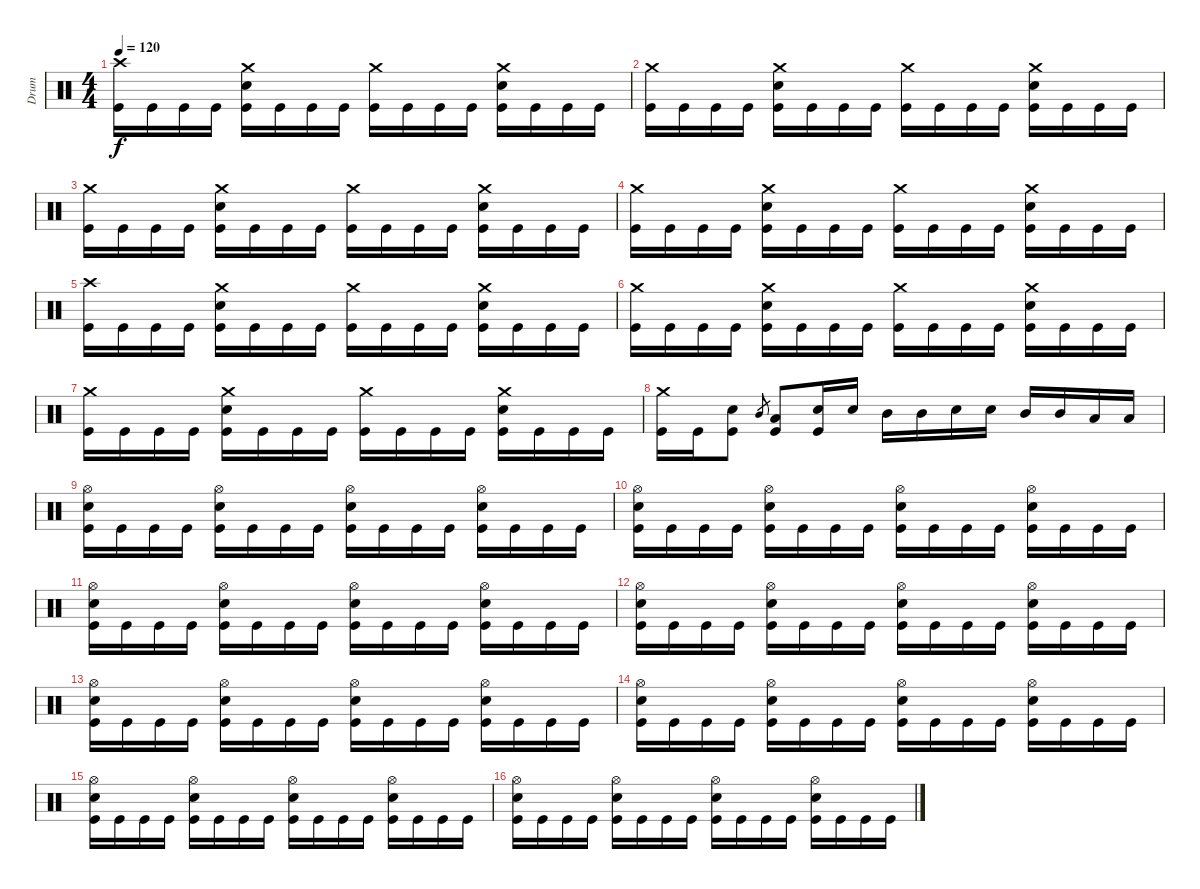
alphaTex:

\track ("Drum" "Drum") {instrument percussion}
\staff {score}
\articulation defaults
\ts (4 4)
\tempo 120
\clef neutral
\ks c
("Kick (hit)" "Crash high (hit)").16{dy f} "Kick (hit)".16 "Kick (hit)".16 "Kick (hit)".16 ("Kick (hit)" "Electric Snare (hit)" "Crash medium (hit)").16 "Kick (hit)".16 "Kick (hit)".16 "Kick (hit)".16 ("Kick (hit)" "Crash medium (hit)").16 "Kick (hit)".16 "Kick (hit)".16 "Kick (hit)".16 ("Kick (hit)" "Electric Snare (hit)" "Crash medium (hit)").16 "Kick (hit)".16 "Kick (hit)".16 "Kick (hit)".16 |
("Kick (hit)" "Crash medium (hit)").16 "Kick (hit)".16 "Kick (hit)".16 "Kick (hit)".16 ("Kick (hit)" "Electric Snare (hit)" "Crash medium (hit)").16 "Kick (hit)".16 "Kick (hit)".16 "Kick (hit)".16 ("Kick (hit)" "Crash medium (hit)").16 "Kick (hit)".16 "Kick (hit)".16 "Kick (hit)".16 ("Kick (hit)" "Electric Snare (hit)" "Crash medium (hit)").16 "Kick (hit)".16 "Kick (hit)".16 "Kick (hit)".16 |
("Kick (hit)" "Crash medium (hit)").16 "Kick (hit)".16 "Kick (hit)".16 "Kick (hit)".16 ("Kick (hit)" "Electric Snare (hit)" "Crash medium (hit)").16 "Kick (hit)".16 "Kick (hit)".16 "Kick (hit)".16 ("Kick (hit)" "Crash medium (hit)").16 "Kick (hit)".16 "Kick (hit)".16 "Kick (hit)".16 ("Kick (hit)" "Electric Snare (hit)" "Crash medium (hit)").16 "Kick (hit)".16 "Kick (hit)".16 "Kick (hit)".16 |
("Kick (hit)" "Crash medium (hit)").16 "Kick (hit)".16 "Kick (hit)".16 "Kick (hit)".16 ("Kick (hit)" "Electric Snare (hit)" "Crash medium (hit)").16 "Kick (hit)".16 "Kick (hit)".16 "Kick (hit)".16 ("Kick (hit)" "Crash medium (hit)").16 "Kick (hit)".16 "Kick (hit)".16 "Kick (hit)".16 ("Kick (hit)" "Electric Snare (hit)" "Crash medium (hit)").16 "Kick (hit)".16 "Kick (hit)".16 "Kick (hit)".16 |
("Kick (hit)" "Crash high (hit)").16 "Kick (hit)".16 "Kick (hit)".16 "Kick (hit)".16 ("Kick (hit)" "Electric Snare (hit)" "Crash medium (hit)").16 "Kick (hit)".16 "Kick (hit)".16 "Kick (hit)".16 ("Kick (hit)" "Crash medium (hit)").16 "Kick (hit)".16 "Kick (hit)".16 "Kick (hit)".16 ("Kick (hit)" "Electric Snare (hit)" "Crash medium (hit)").16 "Kick (hit)".16 "Kick (hit)".16 "Kick (hit)".16 |
("Kick (hit)" "Crash medium (hit)").16 "Kick (hit)".16 "Kick (hit)".16 "Kick (hit)".16 ("Kick (hit)" "Electric Snare (hit)" "Crash medium (hit)").16 "Kick (hit)".16 "Kick (hit)".16 "Kick (hit)".16 ("Kick (hit)" "Crash medium (hit)").16 "Kick (hit)".16 "Kick (hit)".16 "Kick (hit)".16 ("Kick (hit)" "Electric Snare (hit)" "Crash medium (hit)").16 "Kick (hit)".16 "Kick (hit)".16 "Kick (hit)".16 |
("Kick (hit)" "Crash medium (hit)").16 "Kick (hit)".16 "Kick (hit)".16 "Kick (hit)".16 ("Kick (hit)" "Electric Snare (hit)" "Crash medium (hit)").16 "Kick (hit)".16 "Kick (hit)".16 "Kick (hit)".16 ("Kick (hit)" "Crash medium (hit)").16 "Kick (hit)".16 "Kick (hit)".16 "Kick (hit)".16 ("Kick (hit)" "Electric Snare (hit)" "Crash medium (hit)").16 "Kick (hit)".16 "Kick (hit)".16 "Kick (hit)".16 |
("Kick (hit)" "Crash medium (hit)").16 "Kick (hit)".16 ("Kick (hit)" "Electric Snare (hit)").8 "Mid Tom (hit)".8{gr} ("Kick (hit)" "Low Tom (hit)").8 ("Kick (hit)" "Electric Snare (hit)").16 "Electric Snare (hit)".16 "Mid Tom (hit)".16 "Mid Tom (hit)".16 "Electric Snare (hit)".16 "Electric Snare (hit)".16 "Mid Tom (hit)".16 "Mid Tom (hit)".16 "Low Tom (hit)".16 "Low Tom (hit)".16 |
("Kick (hit)" "Electric Snare (hit)" "Hi-Hat (open)").16 "Kick (hit)".16 "Kick (hit)".16 "Kick (hit)".16 ("Kick (hit)" "Electric Snare (hit)" "Hi-Hat (open)").16 "Kick (hit)".16 "Kick (hit)".16 "Kick (hit)".16 ("Kick (hit)" "Electric Snare (hit)" "Hi-Hat (open)").16 "Kick (hit)".16 "Kick (hit)".16 "Kick (hit)".16 ("Kick (hit)" "Electric Snare (hit)" "Hi-Hat (open)").16 "Kick (hit)".16 "Kick (hit)".16 "Kick (hit)".16 |
("Kick (hit)" "Electric Snare (hit)" "Hi-Hat (open)").16 "Kick (hit)".16 "Kick (hit)".16 "Kick (hit)".16 ("Kick (hit)" "Electric Snare (hit)" "Hi-Hat (open)").16 "Kick (hit)".16 "Kick (hit)".16 "Kick (hit)".16 ("Kick (hit)" "Electric Snare (hit)" "Hi-Hat (open)").16 "Kick (hit)".16 "Kick (hit)".16 "Kick (hit)".16 ("Kick (hit)" "Electric Snare (hit)" "Hi-Hat (open)").16 "Kick (hit)".16 "Kick (hit)".16 "Kick (hit)".16 |
("Kick (hit)" "Electric Snare (hit)" "Hi-Hat (open)").16 "Kick (hit)".16 "Kick (hit)".16 "Kick (hit)".16 ("Kick (hit)" "Electric Snare (hit)" "Hi-Hat (open)").16 "Kick (hit)".16 "Kick (hit)".16 "Kick (hit)".16 ("Kick (hit)" "Electric Snare (hit)" "Hi-Hat (open)").16 "Kick (hit)".16 "Kick (hit)".16 "Kick (hit)".16 ("Kick (hit)" "Electric Snare (hit)" "Hi-Hat (open)").16 "Kick (hit)".16 "Kick (hit)".16 "Kick (hit)".16 |
("Kick (hit)" "Electric Snare (hit)" "Hi-Hat (open)").16 "Kick (hit)".16 "Kick (hit)".16 "Kick (hit)".16 ("Kick (hit)" "Electric Snare (hit)" "Hi-Hat (open)").16 "Kick (hit)".16 "Kick (hit)".16 "Kick (hit)".16 ("Kick (hit)" "Electric Snare (hit)" "Hi-Hat (open)").16 "Kick (hit)".16 "Kick (hit)".16 "Kick (hit)".16 ("Kick (hit)" "Electric Snare (hit)" "Hi-Hat (open)").16 "Kick (hit)".16 "Kick (hit)".16 "Kick (hit)".16 |
("Kick (hit)" "Electric Snare (hit)" "Hi-Hat (open)").16 "Kick (hit)".16 "Kick (hit)".16 "Kick (hit)".16 ("Kick (hit)" "Electric Snare (hit)" "Hi-Hat (open)").16 "Kick (hit)".16 "Kick (hit)".16 "Kick (hit)".16 ("Kick (hit)" "Electric Snare (hit)" "Hi-Hat (open)").16 "Kick (hit)".16 "Kick (hit)".16 "Kick (hit)".16 ("Kick (hit)" "Electric Snare (hit)" "Hi-Hat (open)").16 "Kick (hit)".16 "Kick (hit)".16 "Kick (hit)".16 |
("Kick (hit)" "Electric Snare (hit)" "Hi-Hat (open)").16 "Kick (hit)".16 "Kick (hit)".16 "Kick (hit)".16 ("Kick (hit)" "Electric Snare (hit)" "Hi-Hat (open)").16 "Kick (hit)".16 "Kick (hit)".16 "Kick (hit)".16 ("Kick (hit)" "Electric Snare (hit)" "Hi-Hat (open)").16 "Kick (hit)".16 "Kick (hit)".16 "Kick (hit)".16 ("Kick (hit)" "Electric Snare (hit)" "Hi-Hat (open)").16 "Kick (hit)".16 "Kick (hit)".16 "Kick (hit)".16 |
("Kick (hit)" "Electric Snare (hit)" "Hi-Hat (open)").16 "Kick (hit)".16 "Kick (hit)".16 "Kick (hit)".16 ("Kick (hit)" "Electric Snare (hit)" "Hi-Hat (open)").16 "Kick (hit)".16 "Kick (hit)".16 "Kick (hit)".16 ("Kick (hit)" "Electric Snare (hit)" "Hi-Hat (open)").16 "Kick (hit)".16 "Kick (hit)".16 "Kick (hit)".16 ("Kick (hit)" "Electric Snare (hit)" "Hi-Hat (open)").16 "Kick (hit)".16 "Kick (hit)".16 "Kick (hit)".16 |
("Kick (hit)" "Electric Snare (hit)" "Hi-Hat (open)").16 "Kick (hit)".16 "Kick (hit)".16 "Kick (hit)".16 ("Kick (hit)" "Electric Snare (hit)" "Hi-Hat (open)").16 "Kick (hit)".16 "Kick (hit)".16 "Kick (hit)".16 ("Kick (hit)" "Electric Snare (hit)" "Hi-Hat (open)").16 "Kick (hit)".16 "Kick (hit)".16 "Kick (hit)".16 ("Kick (hit)" "Electric Snare (hit)" "Hi-Hat (open)").16 "Kick (hit)".16 "Kick (hit)".16 "Kick (hit)".16
